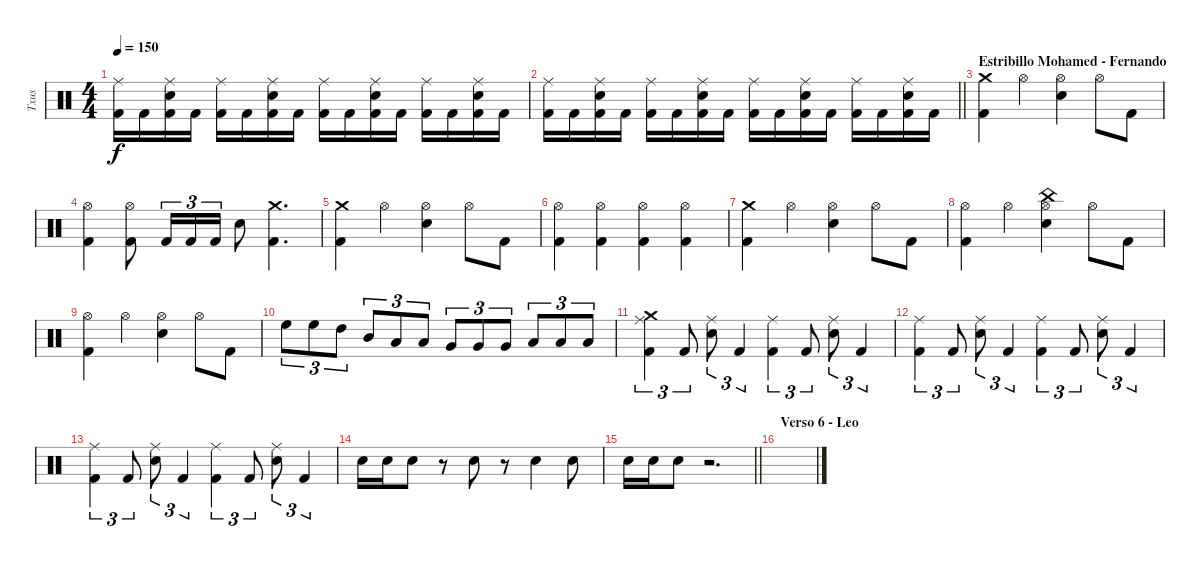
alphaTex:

\track ("Txus" "Txus") {instrument percussion}
\staff {score}
\articulation defaults
\ts (4 4)
\tempo 150
\clef neutral
\ks c
("Ride (middle)" "Kick (hit) 2").16{dy f} "Kick (hit) 2".16 ("Ride (middle)" "Electric Snare (hit)" "Kick (hit) 2").16 "Kick (hit) 2".16 ("Ride (middle)" "Kick (hit) 2").16 "Kick (hit) 2".16 ("Ride (middle)" "Electric Snare (hit)" "Kick (hit) 2").16 "Kick (hit) 2".16 ("Ride (middle)" "Kick (hit) 2").16 "Kick (hit) 2".16 ("Ride (middle)" "Electric Snare (hit)" "Kick (hit) 2").16 "Kick (hit) 2".16 ("Ride (middle)" "Kick (hit) 2").16 "Kick (hit) 2".16 ("Ride (middle)" "Electric Snare (hit)" "Kick (hit) 2").16 "Kick (hit) 2".16 |
\barLineRight lightlight
("Ride (middle)" "Kick (hit) 2").16 "Kick (hit) 2".16 ("Ride (middle)" "Electric Snare (hit)" "Kick (hit) 2").16 "Kick (hit) 2".16 ("Ride (middle)" "Kick (hit) 2").16 "Kick (hit) 2".16 ("Ride (middle)" "Electric Snare (hit)" "Kick (hit) 2").16 "Kick (hit) 2".16 ("Ride (middle)" "Kick (hit) 2").16 "Kick (hit) 2".16 ("Ride (middle)" "Electric Snare (hit)" "Kick (hit) 2").16 "Kick (hit) 2".16 ("Ride (middle)" "Kick (hit) 2").16 "Kick (hit) 2".16 ("Ride (middle)" "Electric Snare (hit)" "Kick (hit) 2").16 "Kick (hit) 2".16 |
\section ("" "Estribillo Mohamed - Fernando")
("Crash medium (hit)" "Kick (hit) 2").4 "Hi-Hat (open)".4 ("Hi-Hat (open)" "Electric Snare (hit)").4 "Hi-Hat (open)".8 "Kick (hit) 2".8 |
("Hi-Hat (open)" "Kick (hit) 2").4 ("Hi-Hat (open)" "Kick (hit) 2").8 "Kick (hit) 2".16{tu (3 2)} "Kick (hit) 2".16{tu (3 2)} "Kick (hit) 2".16{tu (3 2)} "Electric Snare (hit)".8 ("Crash medium (hit)" "Kick (hit) 2").4{d} |
("Crash medium (hit)" "Kick (hit) 2").4 "Hi-Hat (open)".4 ("Hi-Hat (open)" "Electric Snare (hit)").4 "Hi-Hat (open)".8 "Kick (hit) 2".8 |
("Hi-Hat (open)" "Kick (hit) 2").4 ("Hi-Hat (open)" "Kick (hit) 2").4 ("Hi-Hat (open)" "Kick (hit) 2").4 ("Hi-Hat (open)" "Kick (hit) 2").4 |
("Crash medium (hit)" "Kick (hit) 2").4 "Hi-Hat (open)".4 ("Hi-Hat (open)" "Electric Snare (hit)").4 "Hi-Hat (open)".8 "Kick (hit) 2".8 |
("Hi-Hat (open)" "Kick (hit) 2").4 "Hi-Hat (open)".4 ("China (hit)" "Hi-Hat (open)" "Electric Snare (hit)").4 "Hi-Hat (open)".8 "Kick (hit) 2".8 |
("Hi-Hat (open)" "Kick (hit) 2").4 "Hi-Hat (open)".4 ("Hi-Hat (open)" "Electric Snare (hit)").4 "Hi-Hat (open)".8 "Kick (hit) 2".8 |
"High Floor Tom (hit)".8{tu (3 2)} "High Floor Tom (hit)".8{tu (3 2)} "High Tom (hit)".8{tu (3 2)} "Mid Tom (hit)".8{tu (3 2)} "Low Tom (hit)".8{tu (3 2)} "Low Tom (hit)".8{tu (3 2)} "Very Low Tom (hit)".8{tu (3 2)} "Very Low Tom (hit)".8{tu (3 2)} "Very Low Tom (hit)".8{tu (3 2)} "Low Floor Tom (hit)".8{tu (3 2)} "Low Floor Tom (hit)".8{tu (3 2)} "Low Floor Tom (hit)".8{tu (3 2)} |
("Crash medium (hit)" "Ride (middle)" "Kick (hit) 2").4{tu (3 2)} "Kick (hit) 2".8{tu (3 2)} ("Ride (middle)" "Electric Snare (hit)").8{tu (3 2)} "Kick (hit) 2".4{tu (3 2)} ("Ride (middle)" "Kick (hit) 2").4{tu (3 2)} "Kick (hit) 2".8{tu (3 2)} ("Ride (middle)" "Electric Snare (hit)").8{tu (3 2)} "Kick (hit) 2".4{tu (3 2)} |
("Ride (middle)" "Kick (hit) 2").4{tu (3 2)} "Kick (hit) 2".8{tu (3 2)} ("Ride (middle)" "Electric Snare (hit)").8{tu (3 2)} "Kick (hit) 2".4{tu (3 2)} ("Ride (middle)" "Kick (hit) 2").4{tu (3 2)} "Kick (hit) 2".8{tu (3 2)} ("Ride (middle)" "Electric Snare (hit)").8{tu (3 2)} "Kick (hit) 2".4{tu (3 2)} |
("Ride (middle)" "Kick (hit) 2").4{tu (3 2)} "Kick (hit) 2".8{tu (3 2)} ("Ride (middle)" "Electric Snare (hit)").8{tu (3 2)} "Kick (hit) 2".4{tu (3 2)} ("Ride (middle)" "Kick (hit) 2").4{tu (3 2)} "Kick (hit) 2".8{tu (3 2)} ("Ride (middle)" "Electric Snare (hit)").8{tu (3 2)} "Kick (hit) 2".4{tu (3 2)} |
"Electric Snare (hit)".16 "Electric Snare (hit)".16 "Electric Snare (hit)".8 r.8 "Electric Snare (hit)".8 r.8 "Electric Snare (hit)".4 "Electric Snare (hit)".8 |
\barLineRight lightlight "Electric Snare (hit)".16 "Electric Snare (hit)".16 "Electric Snare (hit)".8
r.2{d} |
\section ("" "Verso 6 - Leo")
